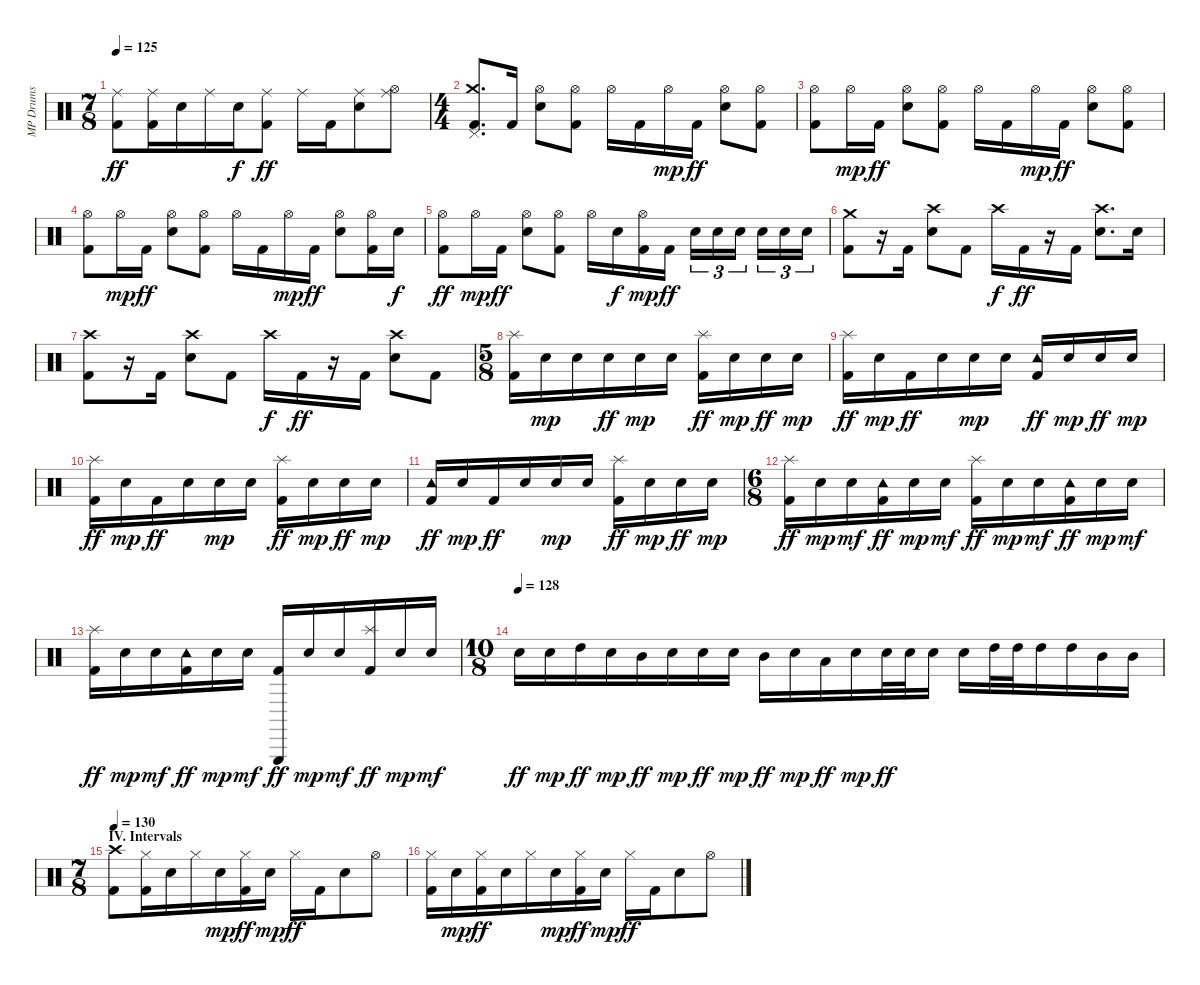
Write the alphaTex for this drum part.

\track ("MP Drums" "MP Drums") {instrument percussion}
\staff {score}
\articulation defaults
\ts (7 8)
\tempo 125
\clef neutral
\ks c
("Ride (middle)" "Kick (hit) 2").8{dy ff} ("Ride (middle)" "Kick (hit) 2").16 "Snare (hit) 2".16 "Ride (middle)".16 "Snare (hit) 2".16{dy f} ("Ride (middle)" "Kick (hit) 2").8{dy ff} "Ride (middle)".16 "Kick (hit) 2".16 ("Ride (middle)" "Snare (hit) 2").8 ("Ride (middle)" "Hi-Hat (open)").8 |
\ts (4 4)
("Crash medium (hit)" "Pedal Hi-Hat (hit)" "Kick (hit) 2").8{d} "Kick (hit) 2".16 ("Hi-Hat (open)" "Snare (hit) 2").8 ("Hi-Hat (open)" "Kick (hit) 2").8 "Hi-Hat (open)".16 "Kick (hit) 2".16 "Hi-Hat (open)".16{dy mp} "Kick (hit) 2".16{dy ff} ("Hi-Hat (open)" "Snare (hit) 2").8 ("Hi-Hat (open)" "Kick (hit) 2").8 |
("Hi-Hat (open)" "Kick (hit) 2").8 "Hi-Hat (open)".16{dy mp} "Kick (hit) 2".16{dy ff} ("Hi-Hat (open)" "Snare (hit) 2").8 ("Hi-Hat (open)" "Kick (hit) 2").8 "Hi-Hat (open)".16 "Kick (hit) 2".16 "Hi-Hat (open)".16{dy mp} "Kick (hit) 2".16{dy ff} ("Hi-Hat (open)" "Snare (hit) 2").8 ("Hi-Hat (open)" "Kick (hit) 2").8 |
("Hi-Hat (open)" "Kick (hit) 2").8 "Hi-Hat (open)".16{dy mp} "Kick (hit) 2".16{dy ff} ("Hi-Hat (open)" "Snare (hit) 2").8 ("Hi-Hat (open)" "Kick (hit) 2").8 "Hi-Hat (open)".16 "Kick (hit) 2".16 "Hi-Hat (open)".16{dy mp} "Kick (hit) 2".16{dy ff} ("Hi-Hat (open)" "Snare (hit) 2").8 ("Hi-Hat (open)" "Kick (hit) 2").16 "Snare (hit) 2".16{dy f} |
("Hi-Hat (open)" "Kick (hit) 2").8{dy ff} "Hi-Hat (open)".16{dy mp} "Kick (hit) 2".16{dy ff} ("Hi-Hat (open)" "Snare (hit) 2").8 ("Hi-Hat (open)" "Kick (hit) 2").8 "Hi-Hat (open)".16 "Snare (hit) 2".16{dy f} ("Hi-Hat (open)" "Kick (hit) 2").16{dy mp} "Kick (hit) 2".16{dy ff} "Snare (hit) 2".16{tu (3 2)} "Snare (hit) 2".16{tu (3 2)} "Snare (hit) 2".16{tu (3 2)} "Snare (hit) 2".16{tu (3 2)} "Snare (hit) 2".16{tu (3 2)} "Snare (hit) 2".16{tu (3 2)} |
("Crash medium (hit)" "Kick (hit) 2").8 r.16 "Kick (hit) 2".16 ("Crash high (hit)" "Snare (hit) 2").8 "Kick (hit) 2".8 "Crash high (hit)".16{dy f} "Kick (hit) 2".16{dy ff} r.16 "Kick (hit) 2".16 ("Crash high (hit)" "Snare (hit) 2").8{d} "Snare (hit) 2".16 |
("Crash high (hit)" "Kick (hit) 2").8 r.16 "Kick (hit) 2".16 ("Crash high (hit)" "Snare (hit) 2").8 "Kick (hit) 2".8 "Crash high (hit)".16{dy f} "Kick (hit) 2".16{dy ff} r.16 "Kick (hit) 2".16 ("Crash high (hit)" "Snare (hit) 2").8 "Kick (hit) 2".8 |
\ts (5 8)
("Splash (hit)" "Kick (hit) 2").16 "Snare (hit) 2".16{dy mp} "Snare (hit) 2".16 "Snare (hit) 2".16{dy ff} "Snare (hit) 2".16{dy mp} "Snare (hit) 2".16 ("Splash (hit)" "Kick (hit) 2").16{dy ff} "Snare (hit) 2".16{dy mp} "Snare (hit) 2".16{dy ff} "Snare (hit) 2".16{dy mp} |
("Splash (hit)" "Kick (hit) 2").16{dy ff} "Snare (hit) 2".16{dy mp} "Kick (hit) 2".16{dy ff} "Snare (hit) 2".16 "Snare (hit) 2".16{dy mp} "Snare (hit) 2".16 ("Tambourine (hit)" "Kick (hit) 2").16{dy ff} "Snare (hit) 2".16{dy mp} "Snare (hit) 2".16{dy ff} "Snare (hit) 2".16{dy mp} |
("Splash (hit)" "Kick (hit) 2").16{dy ff} "Snare (hit) 2".16{dy mp} "Kick (hit) 2".16{dy ff} "Snare (hit) 2".16 "Snare (hit) 2".16{dy mp} "Snare (hit) 2".16 ("Splash (hit)" "Kick (hit) 2").16{dy ff} "Snare (hit) 2".16{dy mp} "Snare (hit) 2".16{dy ff} "Snare (hit) 2".16{dy mp} |
("Tambourine (hit)" "Kick (hit) 2").16{dy ff} "Snare (hit) 2".16{dy mp} "Kick (hit) 2".16{dy ff} "Snare (hit) 2".16 "Snare (hit) 2".16{dy mp} "Snare (hit) 2".16 ("Splash (hit)" "Kick (hit) 2").16{dy ff} "Snare (hit) 2".16{dy mp} "Snare (hit) 2".16{dy ff} "Snare (hit) 2".16{dy mp} |
\ts (6 8)
("Splash (hit)" "Kick (hit) 2").16{dy ff} "Snare (hit) 2".16{dy mp} "Snare (hit) 2".16{dy mf} ("Tambourine (hit)" "Kick (hit) 2").16{dy ff} "Snare (hit) 2".16{dy mp} "Snare (hit) 2".16{dy mf} ("Splash (hit)" "Kick (hit) 2").16{dy ff} "Snare (hit) 2".16{dy mp} "Snare (hit) 2".16{dy mf} ("Tambourine (hit)" "Kick (hit) 2").16{dy ff} "Snare (hit) 2".16{dy mp} "Snare (hit) 2".16{dy mf} |
("Splash (hit)" "Kick (hit) 2").16{dy ff} "Snare (hit) 2".16{dy mp} "Snare (hit) 2".16{dy mf} ("Tambourine (hit)" "Kick (hit) 2").16{dy ff} "Snare (hit) 2".16{dy mp} "Snare (hit) 2".16{dy mf} ("Triangle (hit)" "Kick (hit) 2").16{dy ff} "Snare (hit) 2".16{dy mp} "Snare (hit) 2".16{dy mf} ("Splash (hit)" "Kick (hit) 2").16{dy ff} "Snare (hit) 2".16{dy mp} "Snare (hit) 2".16{dy mf} |
\ts (10 8)
\tempo (128)
"Snare (hit) 2".16{dy ff} "Snare (hit) 2".16{dy mp} "High Tom (hit)".16{dy ff} "Snare (hit) 2".16{dy mp} "Mid Tom (hit)".16{dy ff} "Snare (hit) 2".16{dy mp} "Snare (hit) 2".16{dy ff} "Snare (hit) 2".16{dy mp} "Mid Tom (hit)".16{dy ff} "Snare (hit) 2".16{dy mp} "Low Tom (hit)".16{dy ff} "Snare (hit) 2".16{dy mp} "Snare (hit) 2".32{dy ff} "Snare (hit) 2".32 "Snare (hit) 2".16 "Snare (hit) 2".16 "High Tom (hit)".32 "High Tom (hit)".32 "High Tom (hit)".16 "High Tom (hit)".16 "Mid Tom (hit)".16 "Mid Tom (hit)".16 |
\ts (7 8)
\section ("" "IV. Intervals")
\tempo 130
("Crash high (hit)" "Kick (hit) 2").8 ("Hi-Hat (closed)" "Kick (hit) 2").16 "Snare (hit) 2".16 "Hi-Hat (closed)".16 "Snare (hit) 2".16{dy mp} ("Hi-Hat (closed)" "Kick (hit) 2").16{dy ff} "Snare (hit) 2".16{dy mp} "Hi-Hat (closed)".16{dy ff} "Kick (hit) 2".16 "Snare (hit) 2".8 "Hi-Hat (open)".8 |
("Hi-Hat (closed)" "Kick (hit) 2").16 "Snare (hit) 2".16{dy mp} ("Hi-Hat (closed)" "Kick (hit) 2").16{dy ff} "Snare (hit) 2".16 "Hi-Hat (closed)".16 "Snare (hit) 2".16{dy mp} ("Hi-Hat (closed)" "Kick (hit) 2").16{dy ff} "Snare (hit) 2".16{dy mp} "Hi-Hat (closed)".16{dy ff} "Kick (hit) 2".16 "Snare (hit) 2".8 "Hi-Hat (open)".8
